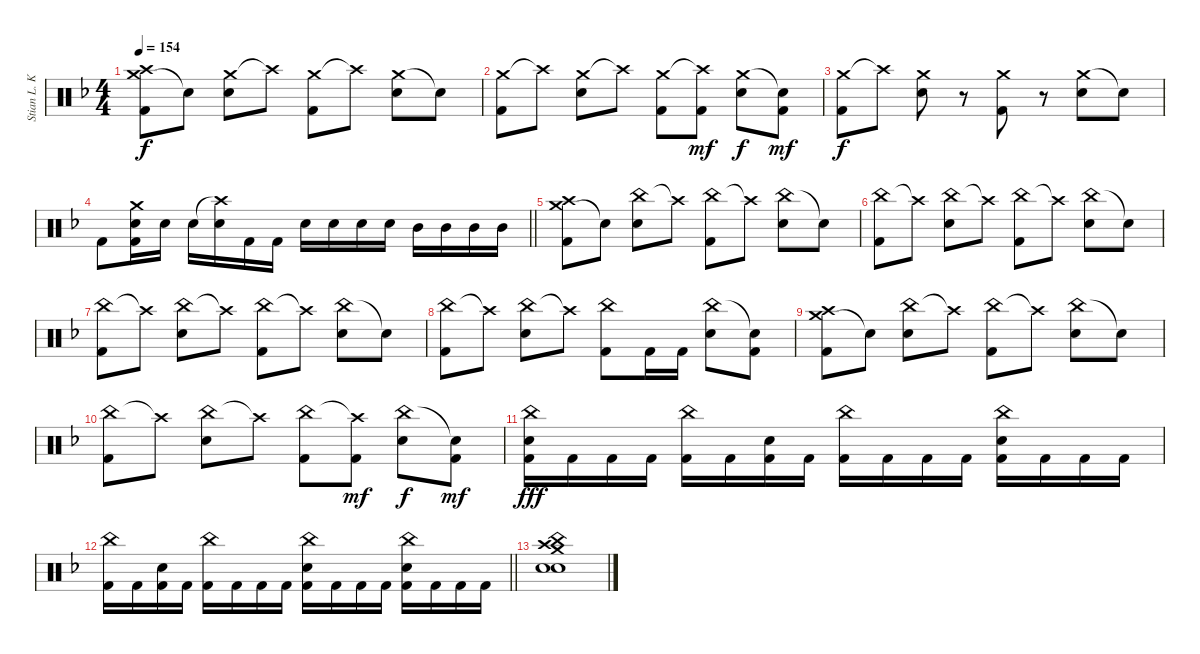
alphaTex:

\track ("Stian L. Kristoffersen" "Stian L. K") {instrument percussion}
\staff {score}
\articulation defaults
\ts (4 4)
\tempo 154
\clef neutral
\ks f
("Crash medium (hit)" "Crash high (hit)" "Kick (hit) 2").8{dy f} "Snare (hit)"{t}.8 ("Crash medium (hit)" "Snare (hit) 2").8 "Crash high (hit)"{t}.8 ("Crash medium (hit)" "Kick (hit) 2").8 "Crash high (hit)"{t}.8 ("Crash medium (hit)" "Snare (hit) 2").8 "Snare (hit)"{t}.8 |
("Crash medium (hit)" "Kick (hit) 2").8 "Crash high (hit)"{t}.8 ("Crash medium (hit)" "Snare (hit) 2").8 "Crash high (hit)"{t}.8 ("Crash medium (hit)" "Kick (hit) 2").8 ("Crash high (hit)"{t} "Kick (hit) 2").8{dy mf} ("Crash medium (hit)" "Snare (hit) 2").8{dy f} ("Snare (hit)"{t} "Kick (hit) 2").8{dy mf} |
("Crash medium (hit)" "Kick (hit) 2").8{dy f} "Crash high (hit)"{t}.8 ("Crash medium (hit)" "Snare (hit) 2").8 r.8 ("Crash medium (hit)" "Kick (hit) 2").8 r.8 ("Crash medium (hit)" "Snare (hit) 2").8 "Snare (hit)"{t}.8 |
\barLineRight lightlight "Kick (hit) 2".8
("Crash medium (hit)" "Snare (hit) 2" "Kick (hit) 2").16 "Snare (hit) 2".16 "Snare (hit) 2".16 ("Crash high (hit)"{t} "Snare (hit) 2").16 "Kick (hit) 2".16 "Kick (hit) 2".16 "Snare (hit) 2".16 "Snare (hit) 2".16 "Snare (hit) 2".16 "Snare (hit) 2".16 "Mid Tom (hit)".16 "Mid Tom (hit)".16 "Mid Tom (hit)".16 "Mid Tom (hit)".16 |
("Crash medium (hit)" "Crash high (hit)" "Kick (hit) 2").8 "Snare (hit)"{t}.8 ("China (hit)" "Snare (hit) 2").8 "Crash high (hit)"{t}.8 ("China (hit)" "Kick (hit) 2").8 "Crash high (hit)"{t}.8 ("China (hit)" "Snare (hit) 2").8 "Snare (hit)"{t}.8 |
("China (hit)" "Kick (hit) 2").8 "Crash high (hit)"{t}.8 ("China (hit)" "Snare (hit) 2").8 "Crash high (hit)"{t}.8 ("China (hit)" "Kick (hit) 2").8 "Crash high (hit)"{t}.8 ("China (hit)" "Snare (hit) 2").8 "Snare (hit)"{t}.8 |
("China (hit)" "Kick (hit) 2").8 "Crash high (hit)"{t}.8 ("China (hit)" "Snare (hit) 2").8 "Crash high (hit)"{t}.8 ("China (hit)" "Kick (hit) 2").8 "Crash high (hit)"{t}.8 ("China (hit)" "Snare (hit) 2").8 "Snare (hit)"{t}.8 |
("China (hit)" "Kick (hit) 2").8 "Crash high (hit)"{t}.8 ("China (hit)" "Snare (hit) 2").8 "Crash high (hit)"{t}.8 ("China (hit)" "Kick (hit) 2").8 "Kick (hit) 2".16 "Kick (hit) 2".16 ("China (hit)" "Snare (hit) 2").8 ("Snare (hit)"{t} "Kick (hit) 2").8 |
("Crash medium (hit)" "Crash high (hit)" "Kick (hit) 2").8 "Snare (hit)"{t}.8 ("China (hit)" "Snare (hit) 2").8 "Crash high (hit)"{t}.8 ("China (hit)" "Kick (hit) 2").8 "Crash high (hit)"{t}.8 ("China (hit)" "Snare (hit) 2").8 "Snare (hit)"{t}.8 |
("China (hit)" "Kick (hit) 2").8 "Crash high (hit)"{t}.8 ("China (hit)" "Snare (hit) 2").8 "Crash high (hit)"{t}.8 ("China (hit)" "Kick (hit) 2").8 ("Crash high (hit)"{t} "Kick (hit) 2").8{dy mf} ("China (hit)" "Snare (hit) 2").8{dy f} ("Snare (hit)"{t} "Kick (hit) 2").8{dy mf} |
("China (hit)" "Snare (hit) 2" "Kick (hit) 2").16{dy fff} "Kick (hit) 2".16 "Kick (hit) 2".16 "Kick (hit) 2".16 ("China (hit)" "Kick (hit) 2").16 "Kick (hit) 2".16 ("Snare (hit) 2" "Kick (hit) 2").16 "Kick (hit) 2".16 ("China (hit)" "Kick (hit) 2").16 "Kick (hit) 2".16 "Kick (hit) 2".16 "Kick (hit) 2".16 ("China (hit)" "Snare (hit) 2" "Kick (hit) 2").16 "Kick (hit) 2".16 "Kick (hit) 2".16 "Kick (hit) 2".16 |
\barLineRight lightlight
("China (hit)" "Kick (hit) 2").16 "Kick (hit) 2".16 ("Snare (hit) 2" "Kick (hit) 2").16 "Kick (hit) 2".16 ("China (hit)" "Kick (hit) 2").16 "Kick (hit) 2".16 "Kick (hit) 2".16 "Kick (hit) 2".16 ("China (hit)" "Snare (hit) 2" "Kick (hit) 2").16 "Kick (hit) 2".16 "Kick (hit) 2".16 "Kick (hit) 2".16 ("China (hit)" "Snare (hit) 2" "Kick (hit) 2").16 "Kick (hit) 2".16 "Kick (hit) 2".16 "Kick (hit) 2".16 |
("Crash high (hit)" "Crash medium (hit)" "China (hit)" "Snare (hit) 2" "Snare (hit) 2").1
